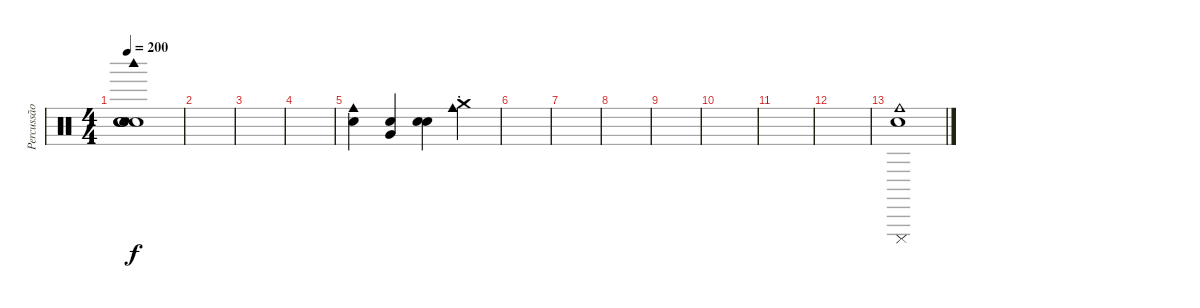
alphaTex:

\track ("Percussão" "Percussão") {instrument percussion}
\staff {score}
\articulation defaults
\ts (4 4)
\tempo 200
\clef neutral
\ks c
("Woodblock high (hit)" "Snare (hit)" "Metronome (bell)" "Snare (hit)" "Snare (hit)" "Snare (hit)").1{dy f} |
|
|
|
("Cowbell medium (hit)" "Snare (hit)").4 ("Snare (hit)" "Very Low Tom (hit)").4 ("Snare (hit)" "Metronome (bell)").4 ("Crash medium (choke)" "Cowbell medium (hit)").4 |
|
|
|
|
|
|
|
("Snare (hit)" "Cuica (mute)" "Cowbell medium (hit)").1
